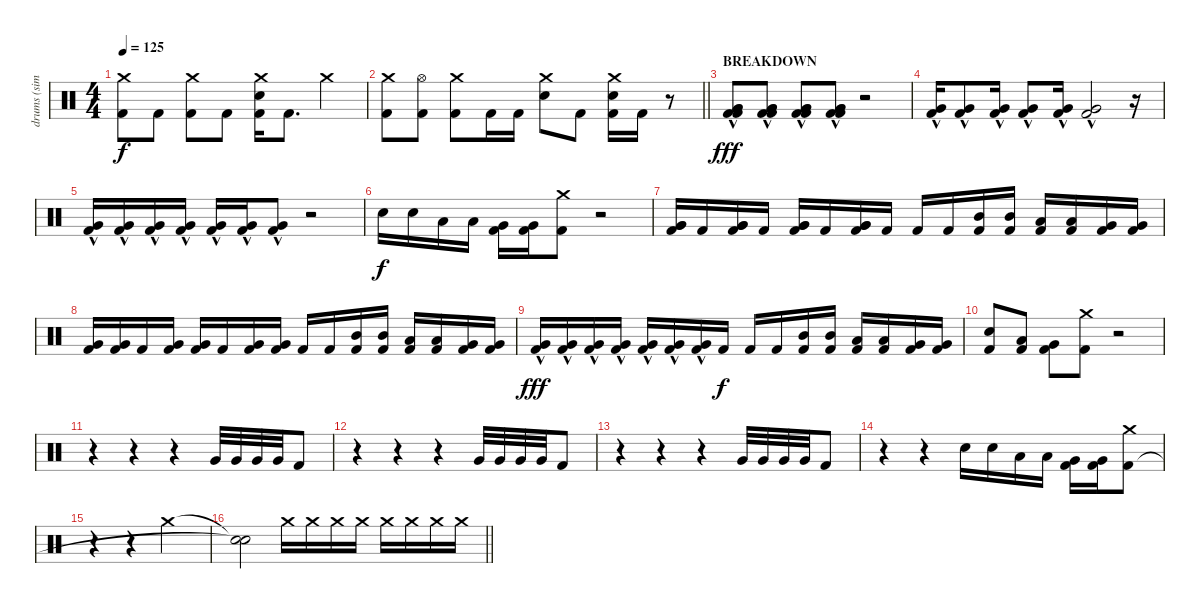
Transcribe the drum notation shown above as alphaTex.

\track ("drums (simple)" "drums (sim") {instrument percussion}
\staff {score}
\articulation defaults
\ts (4 4)
\tempo 125
\clef neutral
\ks c
("Crash medium (hit)" "Kick (hit) 2").8{dy f} "Kick (hit) 2".8 ("Crash medium (hit)" "Kick (hit) 2").8 "Kick (hit) 2".8 ("Crash medium (hit)" "Electric Snare (hit)" "Kick (hit) 2").16 "Kick (hit) 2".8{d} "Crash medium (hit)".4 |
\barLineRight lightlight
("Crash medium (hit)" "Kick (hit) 2").8 ("Hi-Hat (open)" "Kick (hit) 2").8 ("Crash medium (hit)" "Kick (hit) 2").8 "Kick (hit) 2".16 "Kick (hit) 2".16 ("Crash medium (hit)" "Electric Snare (hit)").8 "Kick (hit) 2".8 ("Crash medium (hit)" "Electric Snare (hit)" "Kick (hit) 2").16 "Kick (hit) 2".16 r.8 |
\section ("" "BREAKDOWN")
("Very Low Tom (hit)"{hac} "Very Low Tom (hit)"{hac} "Kick (hit) 2"{hac} "Kick (hit) 2"{hac}).8{dy fff} ("Very Low Tom (hit)"{hac} "Very Low Tom (hit)"{hac} "Kick (hit) 2"{hac} "Kick (hit) 2"{hac}).8 ("Very Low Tom (hit)"{hac} "Very Low Tom (hit)"{hac} "Kick (hit) 2"{hac} "Kick (hit) 2"{hac}).8 ("Very Low Tom (hit)"{hac} "Very Low Tom (hit)"{hac} "Kick (hit) 2"{hac} "Kick (hit) 2"{hac}).8 r.2 |
("Very Low Tom (hit)"{hac} "Kick (hit) 2"{hac}).16 ("Very Low Tom (hit)"{hac} "Kick (hit) 2"{hac}).8 ("Very Low Tom (hit)"{hac} "Kick (hit) 2"{hac}).16 ("Very Low Tom (hit)"{hac} "Kick (hit) 2"{hac}).8 ("Very Low Tom (hit)"{hac} "Kick (hit) 2"{hac}).16 ("Very Low Tom (hit)"{hac} "Kick (hit) 2"{hac}).2 r.16 |
("Very Low Tom (hit)"{hac} "Kick (hit) 2"{hac}).16 ("Very Low Tom (hit)"{hac} "Kick (hit) 2"{hac}).16 ("Very Low Tom (hit)"{hac} "Kick (hit) 2"{hac}).16 ("Very Low Tom (hit)"{hac} "Kick (hit) 2"{hac}).16 ("Very Low Tom (hit)"{hac} "Kick (hit) 2"{hac}).16 ("Very Low Tom (hit)"{hac} "Kick (hit) 2"{hac}).16 ("Very Low Tom (hit)"{hac} "Kick (hit) 2"{hac}).8 r.2 |
"Electric Snare (hit)".16{dy f} "Electric Snare (hit)".16 "Low Tom (hit)".16 "Low Tom (hit)".16 ("Very Low Tom (hit)" "Kick (hit) 2").16 ("Very Low Tom (hit)" "Kick (hit) 2").16 ("Crash medium (hit)" "Kick (hit) 2").8 r.2 |
("Very Low Tom (hit)" "Very Low Tom (hit)" "Kick (hit) 2").16 "Kick (hit) 2".16 ("Very Low Tom (hit)" "Very Low Tom (hit)" "Kick (hit) 2").16 "Kick (hit) 2".16 ("Very Low Tom (hit)" "Very Low Tom (hit)" "Kick (hit) 2").16 "Kick (hit) 2".16 ("Very Low Tom (hit)" "Very Low Tom (hit)" "Kick (hit) 2").16 "Kick (hit) 2".16 "Kick (hit) 2".16 "Kick (hit) 2".16 ("Mid Tom (hit)" "Kick (hit) 2").16 ("Mid Tom (hit)" "Kick (hit) 2").16 ("Low Tom (hit)" "Kick (hit) 2").16 ("Low Tom (hit)" "Kick (hit) 2").16 ("Very Low Tom (hit)" "Kick (hit) 2").16 ("Very Low Tom (hit)" "Kick (hit) 2").16 |
("Very Low Tom (hit)" "Kick (hit) 2").16 ("Very Low Tom (hit)" "Kick (hit) 2").16 "Kick (hit) 2".16 ("Very Low Tom (hit)" "Kick (hit) 2").16 ("Very Low Tom (hit)" "Kick (hit) 2").16 "Kick (hit) 2".16 ("Very Low Tom (hit)" "Kick (hit) 2").16 ("Very Low Tom (hit)" "Kick (hit) 2").16 "Kick (hit) 2".16 "Kick (hit) 2".16 ("Mid Tom (hit)" "Kick (hit) 2").16 ("Mid Tom (hit)" "Kick (hit) 2").16 ("Low Tom (hit)" "Kick (hit) 2").16 ("Low Tom (hit)" "Kick (hit) 2").16 ("Very Low Tom (hit)" "Kick (hit) 2").16 ("Very Low Tom (hit)" "Kick (hit) 2").16 |
("Very Low Tom (hit)"{hac} "Kick (hit) 2"{hac}).16{dy fff} ("Very Low Tom (hit)"{hac} "Kick (hit) 2"{hac}).16 ("Very Low Tom (hit)"{hac} "Kick (hit) 2"{hac}).16 ("Very Low Tom (hit)"{hac} "Kick (hit) 2"{hac}).16 ("Very Low Tom (hit)"{hac} "Kick (hit) 2"{hac}).16 ("Very Low Tom (hit)"{hac} "Kick (hit) 2"{hac}).16 ("Very Low Tom (hit)"{hac} "Kick (hit) 2"{hac}).16 "Kick (hit) 2".16{dy f} "Kick (hit) 2".16 "Kick (hit) 2".16 ("Mid Tom (hit)" "Kick (hit) 2").16 ("Mid Tom (hit)" "Kick (hit) 2").16 ("Low Tom (hit)" "Kick (hit) 2").16 ("Low Tom (hit)" "Kick (hit) 2").16 ("Very Low Tom (hit)" "Kick (hit) 2").16 ("Very Low Tom (hit)" "Kick (hit) 2").16 |
("Electric Snare (hit)" "Kick (hit) 2").8 ("Low Tom (hit)" "Kick (hit) 2").8 ("Very Low Tom (hit)" "Kick (hit) 2").8 ("Crash medium (hit)" "Kick (hit) 2").8 r.2 |
r.4 r.4 r.4 "Very Low Tom (hit)".32 "Very Low Tom (hit)".32 "Very Low Tom (hit)".32 "Very Low Tom (hit)".32 "Kick (hit) 2".8 |
r.4 r.4 r.4 "Very Low Tom (hit)".32 "Very Low Tom (hit)".32 "Very Low Tom (hit)".32 "Very Low Tom (hit)".32 "Kick (hit) 2".8 |
r.4 r.4 r.4 "Very Low Tom (hit)".32 "Very Low Tom (hit)".32 "Very Low Tom (hit)".32 "Very Low Tom (hit)".32 "Kick (hit) 2".8 |
r.4 r.4 "Electric Snare (hit)".16 "Electric Snare (hit)".16 "Low Tom (hit)".16 "Low Tom (hit)".16 ("Very Low Tom (hit)" "Kick (hit) 2").16 ("Very Low Tom (hit)" "Kick (hit) 2").16 ("Crash medium (hit)" "Kick (hit) 2").8 |
r.4 r.4 "Crash medium (hit)".2 |
\barLineRight lightlight
("Snare (hit)"{t} "Snare (hit)"{t}).2{volume 0} "Crash medium (hit)".16{volume 12} "Crash medium (hit)".16 "Crash medium (hit)".16 "Crash medium (hit)".16 "Crash medium (hit)".16 "Crash medium (hit)".16 "Crash medium (hit)".16 "Crash medium (hit)".16
